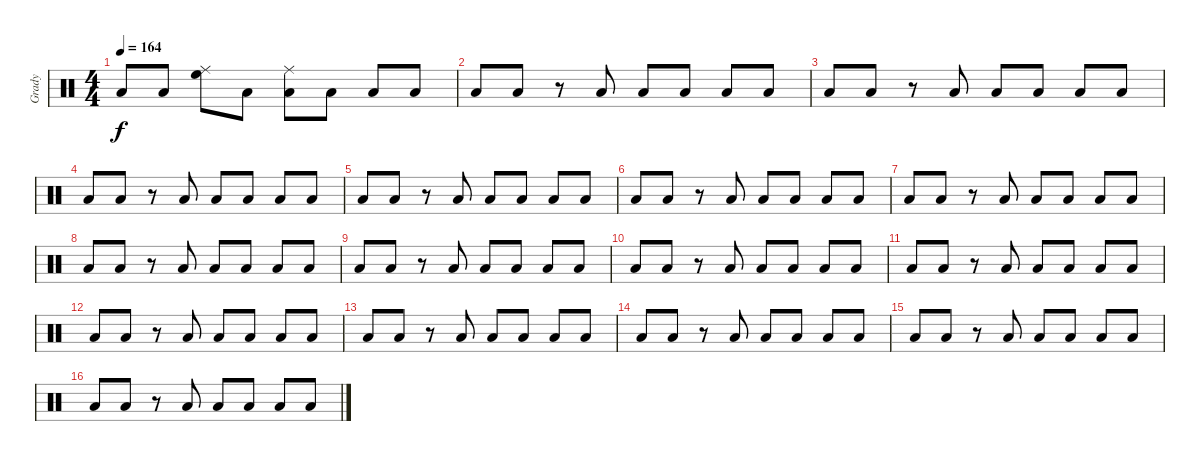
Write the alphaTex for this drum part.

\track ("Grady" "Grady") {instrument percussion}
\staff {score}
\articulation defaults
\ts (4 4)
\tempo 164
\clef neutral
\ks c "Low Tom (hit)".8{dy f} "Low Tom (hit)".8
("High Floor Tom (hit)" "Ride (middle)").8 "Low Tom (hit)".8 ("Ride (middle)" "Low Tom (hit)").8 "Low Tom (hit)".8 "Low Tom (hit)".8 "Low Tom (hit)".8 |
"Low Tom (hit)".8 "Low Tom (hit)".8 r.8 "Low Tom (hit)".8 "Low Tom (hit)".8 "Low Tom (hit)".8 "Low Tom (hit)".8 "Low Tom (hit)".8 |
"Low Tom (hit)".8 "Low Tom (hit)".8 r.8 "Low Tom (hit)".8 "Low Tom (hit)".8 "Low Tom (hit)".8 "Low Tom (hit)".8 "Low Tom (hit)".8 |
"Low Tom (hit)".8 "Low Tom (hit)".8 r.8 "Low Tom (hit)".8 "Low Tom (hit)".8 "Low Tom (hit)".8 "Low Tom (hit)".8 "Low Tom (hit)".8 |
"Low Tom (hit)".8 "Low Tom (hit)".8 r.8 "Low Tom (hit)".8 "Low Tom (hit)".8 "Low Tom (hit)".8 "Low Tom (hit)".8 "Low Tom (hit)".8 |
"Low Tom (hit)".8 "Low Tom (hit)".8 r.8 "Low Tom (hit)".8 "Low Tom (hit)".8 "Low Tom (hit)".8 "Low Tom (hit)".8 "Low Tom (hit)".8 |
"Low Tom (hit)".8 "Low Tom (hit)".8 r.8 "Low Tom (hit)".8 "Low Tom (hit)".8 "Low Tom (hit)".8 "Low Tom (hit)".8 "Low Tom (hit)".8 |
"Low Tom (hit)".8 "Low Tom (hit)".8 r.8 "Low Tom (hit)".8 "Low Tom (hit)".8 "Low Tom (hit)".8 "Low Tom (hit)".8 "Low Tom (hit)".8 |
"Low Tom (hit)".8 "Low Tom (hit)".8 r.8 "Low Tom (hit)".8 "Low Tom (hit)".8 "Low Tom (hit)".8 "Low Tom (hit)".8 "Low Tom (hit)".8 |
"Low Tom (hit)".8 "Low Tom (hit)".8 r.8 "Low Tom (hit)".8 "Low Tom (hit)".8 "Low Tom (hit)".8 "Low Tom (hit)".8 "Low Tom (hit)".8 |
"Low Tom (hit)".8 "Low Tom (hit)".8 r.8 "Low Tom (hit)".8 "Low Tom (hit)".8 "Low Tom (hit)".8 "Low Tom (hit)".8 "Low Tom (hit)".8 |
"Low Tom (hit)".8 "Low Tom (hit)".8 r.8 "Low Tom (hit)".8 "Low Tom (hit)".8 "Low Tom (hit)".8 "Low Tom (hit)".8 "Low Tom (hit)".8 |
"Low Tom (hit)".8 "Low Tom (hit)".8 r.8 "Low Tom (hit)".8 "Low Tom (hit)".8 "Low Tom (hit)".8 "Low Tom (hit)".8 "Low Tom (hit)".8 |
"Low Tom (hit)".8 "Low Tom (hit)".8 r.8 "Low Tom (hit)".8 "Low Tom (hit)".8 "Low Tom (hit)".8 "Low Tom (hit)".8 "Low Tom (hit)".8 |
"Low Tom (hit)".8 "Low Tom (hit)".8 r.8 "Low Tom (hit)".8 "Low Tom (hit)".8 "Low Tom (hit)".8 "Low Tom (hit)".8 "Low Tom (hit)".8 |
"Low Tom (hit)".8 "Low Tom (hit)".8 r.8 "Low Tom (hit)".8 "Low Tom (hit)".8 "Low Tom (hit)".8 "Low Tom (hit)".8 "Low Tom (hit)".8
